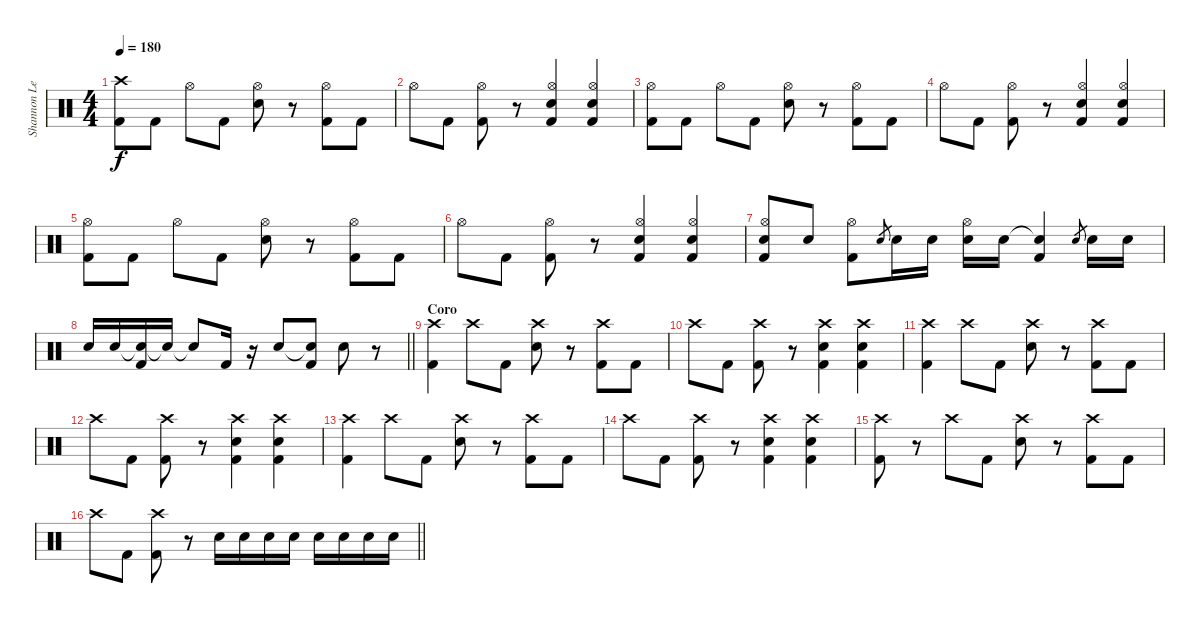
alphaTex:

\track ("Shannon Leto" "Shannon Le") {instrument percussion}
\staff {score}
\articulation defaults
\ts (4 4)
\tempo 180
\clef neutral
\ks c
("Crash high (hit)" "Kick (hit) 2").8{dy f} "Kick (hit) 2".8 "Hi-Hat (open)".8 "Kick (hit) 2".8 ("Hi-Hat (open)" "Snare (hit) 2").8 r.8 ("Hi-Hat (open)" "Kick (hit) 2").8 "Kick (hit) 2".8 |
"Hi-Hat (open)".8 "Kick (hit) 2".8 ("Hi-Hat (open)" "Kick (hit) 2").8 r.8 ("Hi-Hat (open)" "Snare (hit) 2" "Kick (hit) 2").4 ("Hi-Hat (open)" "Snare (hit) 2" "Kick (hit) 2").4 |
("Hi-Hat (open)" "Kick (hit) 2").8 "Kick (hit) 2".8 "Hi-Hat (open)".8 "Kick (hit) 2".8 ("Hi-Hat (open)" "Snare (hit) 2").8 r.8 ("Hi-Hat (open)" "Kick (hit) 2").8 "Kick (hit) 2".8 |
"Hi-Hat (open)".8 "Kick (hit) 2".8 ("Hi-Hat (open)" "Kick (hit) 2").8 r.8 ("Hi-Hat (open)" "Snare (hit) 2" "Kick (hit) 2").4 ("Hi-Hat (open)" "Snare (hit) 2" "Kick (hit) 2").4 |
("Hi-Hat (open)" "Kick (hit) 2").8 "Kick (hit) 2".8 "Hi-Hat (open)".8 "Kick (hit) 2".8 ("Hi-Hat (open)" "Snare (hit) 2").8 r.8 ("Hi-Hat (open)" "Kick (hit) 2").8 "Kick (hit) 2".8 |
"Hi-Hat (open)".8 "Kick (hit) 2".8 ("Hi-Hat (open)" "Kick (hit) 2").8 r.8 ("Hi-Hat (open)" "Snare (hit) 2" "Kick (hit) 2").4 ("Hi-Hat (open)" "Snare (hit) 2" "Kick (hit) 2").4 |
("Hi-Hat (open)" "Snare (hit) 2" "Kick (hit) 2").8 "Snare (hit) 2".8 ("Hi-Hat (open)" "Kick (hit) 2").8 "Snare (hit) 2".8{gr} "Snare (hit) 2".16 "Snare (hit) 2".16 ("Hi-Hat (open)" "Snare (hit) 2").16 "Snare (hit) 2".16 ("Snare (hit)"{t} "Kick (hit) 2").4 "Snare (hit) 2".8{gr} "Snare (hit) 2".16 "Snare (hit) 2".16 |
\barLineRight lightlight "Snare (hit) 2".16 "Snare (hit) 2".16
("Snare (hit) 2"{t} "Kick (hit) 2").16 "Snare (hit) 2"{t}.16 "Snare (hit)"{t}.8 "Kick (hit) 2".16 r.16 "Snare (hit) 2".8 ("Snare (hit)"{t} "Kick (hit) 2").8 "Snare (hit) 2".8 r.8 |
\section ("" "Coro")
("Crash high (hit)" "Kick (hit) 2").4 "Crash high (hit)".8 "Kick (hit) 2".8 ("Crash high (hit)" "Snare (hit) 2").8 r.8 ("Crash high (hit)" "Kick (hit) 2").8 "Kick (hit) 2".8 |
"Crash high (hit)".8 "Kick (hit) 2".8 ("Crash high (hit)" "Kick (hit) 2").8 r.8 ("Crash high (hit)" "Snare (hit) 2" "Kick (hit) 2").4 ("Crash high (hit)" "Snare (hit) 2" "Kick (hit) 2").4 |
("Crash high (hit)" "Kick (hit) 2").4 "Crash high (hit)".8 "Kick (hit) 2".8 ("Crash high (hit)" "Snare (hit) 2").8 r.8 ("Crash high (hit)" "Kick (hit) 2").8 "Kick (hit) 2".8 |
"Crash high (hit)".8 "Kick (hit) 2".8 ("Crash high (hit)" "Kick (hit) 2").8 r.8 ("Crash high (hit)" "Snare (hit) 2" "Kick (hit) 2").4 ("Crash high (hit)" "Snare (hit) 2" "Kick (hit) 2").4 |
("Crash high (hit)" "Kick (hit) 2").4 "Crash high (hit)".8 "Kick (hit) 2".8 ("Crash high (hit)" "Snare (hit) 2").8 r.8 ("Crash high (hit)" "Kick (hit) 2").8 "Kick (hit) 2".8 |
"Crash high (hit)".8 "Kick (hit) 2".8 ("Crash high (hit)" "Kick (hit) 2").8 r.8 ("Crash high (hit)" "Snare (hit) 2" "Kick (hit) 2").4 ("Crash high (hit)" "Snare (hit) 2" "Kick (hit) 2").4 |
("Crash high (hit)" "Kick (hit) 2").8 r.8 "Crash high (hit)".8 "Kick (hit) 2".8 ("Crash high (hit)" "Snare (hit) 2").8 r.8 ("Crash high (hit)" "Kick (hit) 2").8 "Kick (hit) 2".8 |
\barLineRight lightlight "Crash high (hit)".8 "Kick (hit) 2".8
("Crash high (hit)" "Kick (hit) 2").8 r.8 "Snare (hit) 2".16 "Snare (hit) 2".16 "Snare (hit) 2".16 "Snare (hit) 2".16 "Snare (hit) 2".16 "Snare (hit) 2".16 "Snare (hit) 2".16 "Snare (hit) 2".16
